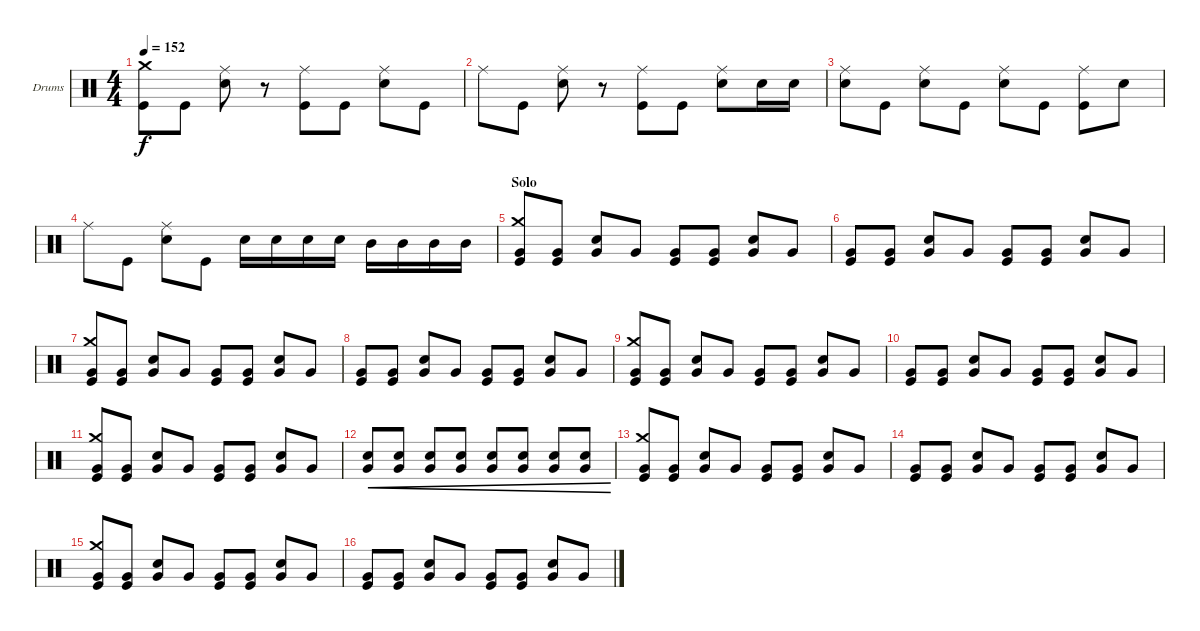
\bracketExtendMode groupsimilarinstruments
\firstSystemTrackNameOrientation horizontal
\otherSystemsTrackNameOrientation horizontal
\track ("Drumkit" "Drums") {instrument percussion}
\staff {score}
\articulation defaults
\ts (4 4)
\tempo 152
\clef neutral
\ks c
("Kick (hit)" "Crash medium (hit)").8{dy f} "Kick (hit)".8 ("Snare (hit) 2" "Ride (middle)").8 r.8 ("Kick (hit)" "Ride (middle)").8 "Kick (hit)".8 ("Snare (hit) 2" "Ride (middle)").8 "Kick (hit)".8 |
"Ride (middle)".8 "Kick (hit)".8 ("Snare (hit) 2" "Ride (middle)").8 r.8 ("Kick (hit)" "Ride (middle)").8 "Kick (hit)".8 ("Snare (hit) 2" "Ride (middle)").8 "Snare (hit) 2".16 "Snare (hit) 2".16 |
("Snare (hit) 2" "Ride (middle)").8 "Kick (hit)".8 ("Snare (hit) 2" "Ride (middle)").8 "Kick (hit)".8 ("Snare (hit) 2" "Ride (middle)").8 "Kick (hit)".8 ("Kick (hit)" "Ride (middle)").8 "Snare (hit) 2".8 |
"Ride (middle)".8 "Kick (hit)".8 ("Snare (hit) 2" "Ride (middle)").8 "Kick (hit)".8 "Snare (hit) 2".16 "Snare (hit) 2".16 "Snare (hit) 2".16 "Snare (hit) 2".16 "Mid Tom (hit)".16 "Mid Tom (hit)".16 "Mid Tom (hit)".16 "Mid Tom (hit)".16 |
\section ("" "Solo")
("Very Low Tom (hit)" "Kick (hit)" "Crash medium (hit)").8 ("Very Low Tom (hit)" "Kick (hit)").8 ("Very Low Tom (hit)" "Snare (hit) 2").8 "Very Low Tom (hit)".8 ("Very Low Tom (hit)" "Kick (hit)").8 ("Very Low Tom (hit)" "Kick (hit)").8 ("Very Low Tom (hit)" "Snare (hit) 2").8 "Very Low Tom (hit)".8 |
("Very Low Tom (hit)" "Kick (hit)").8 ("Very Low Tom (hit)" "Kick (hit)").8 ("Very Low Tom (hit)" "Snare (hit) 2").8 "Very Low Tom (hit)".8 ("Very Low Tom (hit)" "Kick (hit)").8 ("Very Low Tom (hit)" "Kick (hit)").8 ("Very Low Tom (hit)" "Snare (hit) 2").8 "Very Low Tom (hit)".8 |
("Very Low Tom (hit)" "Kick (hit)" "Crash medium (hit)").8 ("Very Low Tom (hit)" "Kick (hit)").8 ("Very Low Tom (hit)" "Snare (hit) 2").8 "Very Low Tom (hit)".8 ("Very Low Tom (hit)" "Kick (hit)").8 ("Very Low Tom (hit)" "Kick (hit)").8 ("Very Low Tom (hit)" "Snare (hit) 2").8 "Very Low Tom (hit)".8 |
("Very Low Tom (hit)" "Kick (hit)").8 ("Very Low Tom (hit)" "Kick (hit)").8 ("Very Low Tom (hit)" "Snare (hit) 2").8 "Very Low Tom (hit)".8 ("Very Low Tom (hit)" "Kick (hit)").8 ("Very Low Tom (hit)" "Kick (hit)").8 ("Very Low Tom (hit)" "Snare (hit) 2").8 "Very Low Tom (hit)".8 |
("Very Low Tom (hit)" "Kick (hit)" "Crash medium (hit)").8 ("Very Low Tom (hit)" "Kick (hit)").8 ("Very Low Tom (hit)" "Snare (hit) 2").8 "Very Low Tom (hit)".8 ("Very Low Tom (hit)" "Kick (hit)").8 ("Very Low Tom (hit)" "Kick (hit)").8 ("Very Low Tom (hit)" "Snare (hit) 2").8 "Very Low Tom (hit)".8 |
("Very Low Tom (hit)" "Kick (hit)").8 ("Very Low Tom (hit)" "Kick (hit)").8 ("Very Low Tom (hit)" "Snare (hit) 2").8 "Very Low Tom (hit)".8 ("Very Low Tom (hit)" "Kick (hit)").8 ("Very Low Tom (hit)" "Kick (hit)").8 ("Very Low Tom (hit)" "Snare (hit) 2").8 "Very Low Tom (hit)".8 |
("Very Low Tom (hit)" "Kick (hit)" "Crash medium (hit)").8 ("Very Low Tom (hit)" "Kick (hit)").8 ("Very Low Tom (hit)" "Snare (hit) 2").8 "Very Low Tom (hit)".8 ("Very Low Tom (hit)" "Kick (hit)").8 ("Very Low Tom (hit)" "Kick (hit)").8 ("Very Low Tom (hit)" "Snare (hit) 2").8 "Very Low Tom (hit)".8 |
("Snare (hit) 2" "Very Low Tom (hit)").8{cre} ("Snare (hit) 2" "Very Low Tom (hit)").8{cre} ("Snare (hit) 2" "Very Low Tom (hit)").8{cre} ("Snare (hit) 2" "Very Low Tom (hit)").8{cre} ("Snare (hit) 2" "Very Low Tom (hit)").8{cre} ("Snare (hit) 2" "Very Low Tom (hit)").8{cre} ("Snare (hit) 2" "Very Low Tom (hit)").8{cre} ("Snare (hit) 2" "Very Low Tom (hit)").8{cre} |
("Very Low Tom (hit)" "Kick (hit)" "Crash medium (hit)").8 ("Very Low Tom (hit)" "Kick (hit)").8 ("Very Low Tom (hit)" "Snare (hit) 2").8 "Very Low Tom (hit)".8 ("Very Low Tom (hit)" "Kick (hit)").8 ("Very Low Tom (hit)" "Kick (hit)").8 ("Very Low Tom (hit)" "Snare (hit) 2").8 "Very Low Tom (hit)".8 |
("Very Low Tom (hit)" "Kick (hit)").8 ("Very Low Tom (hit)" "Kick (hit)").8 ("Very Low Tom (hit)" "Snare (hit) 2").8 "Very Low Tom (hit)".8 ("Very Low Tom (hit)" "Kick (hit)").8 ("Very Low Tom (hit)" "Kick (hit)").8 ("Very Low Tom (hit)" "Snare (hit) 2").8 "Very Low Tom (hit)".8 |
("Very Low Tom (hit)" "Kick (hit)" "Crash medium (hit)").8 ("Very Low Tom (hit)" "Kick (hit)").8 ("Very Low Tom (hit)" "Snare (hit) 2").8 "Very Low Tom (hit)".8 ("Very Low Tom (hit)" "Kick (hit)").8 ("Very Low Tom (hit)" "Kick (hit)").8 ("Very Low Tom (hit)" "Snare (hit) 2").8 "Very Low Tom (hit)".8 |
("Very Low Tom (hit)" "Kick (hit)").8 ("Very Low Tom (hit)" "Kick (hit)").8 ("Very Low Tom (hit)" "Snare (hit) 2").8 "Very Low Tom (hit)".8 ("Very Low Tom (hit)" "Kick (hit)").8 ("Very Low Tom (hit)" "Kick (hit)").8 ("Very Low Tom (hit)" "Snare (hit) 2").8 "Very Low Tom (hit)".8
